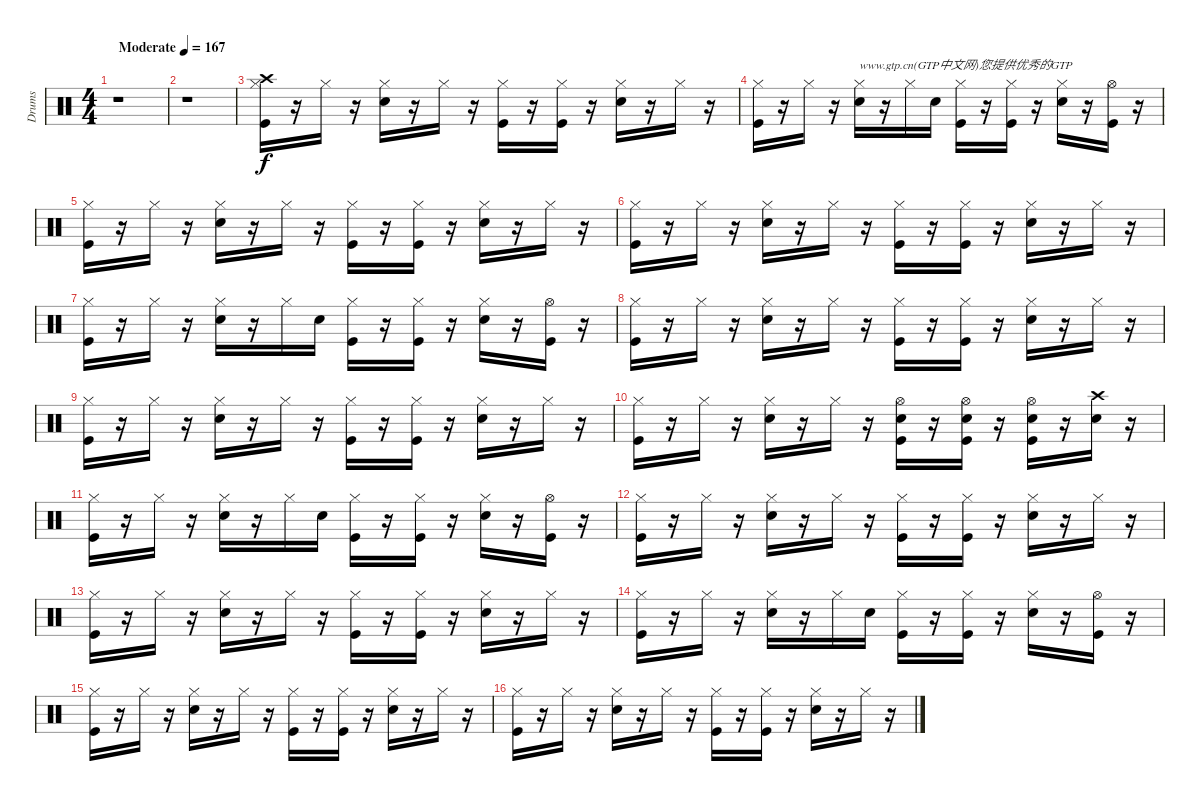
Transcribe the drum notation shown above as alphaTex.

\track ("Drums" "Drums") {instrument percussion}
\staff {score}
\articulation defaults
\ts (4 4)
\tempo (167 "Moderate")
\clef neutral
\ks c
r.1{dy f} |
r.1 |
("Kick (hit)" "Hi-Hat (closed)" "Crash high (hit)").16 r.16 "Hi-Hat (closed)".16 r.16 ("Snare (hit) 2" "Hi-Hat (closed)").16 r.16 "Hi-Hat (closed)".16 r.16 ("Kick (hit)" "Hi-Hat (closed)").16 r.16 ("Kick (hit)" "Hi-Hat (closed)").16 r.16 ("Snare (hit) 2" "Hi-Hat (closed)").16 r.16 "Hi-Hat (closed)".16 r.16 |
("Kick (hit)" "Hi-Hat (closed)").16 r.16 "Hi-Hat (closed)".16 r.16 ("Snare (hit) 2" "Hi-Hat (closed)").16{txt "www.gtp.cn(GTP中文网)您提供优秀的GTP"} r.16 "Hi-Hat (closed)".16 "Snare (hit) 2".16 ("Kick (hit)" "Hi-Hat (closed)").16 r.16 ("Kick (hit)" "Hi-Hat (closed)").16 r.16 ("Snare (hit) 2" "Hi-Hat (closed)").16 r.16 ("Kick (hit)" "Hi-Hat (open)").16 r.16 |
("Kick (hit)" "Hi-Hat (closed)").16 r.16 "Hi-Hat (closed)".16 r.16 ("Snare (hit) 2" "Hi-Hat (closed)").16 r.16 "Hi-Hat (closed)".16 r.16 ("Kick (hit)" "Hi-Hat (closed)").16 r.16 ("Kick (hit)" "Hi-Hat (closed)").16 r.16 ("Snare (hit) 2" "Hi-Hat (closed)").16 r.16 "Hi-Hat (closed)".16 r.16 |
("Kick (hit)" "Hi-Hat (closed)").16 r.16 "Hi-Hat (closed)".16 r.16 ("Snare (hit) 2" "Hi-Hat (closed)").16 r.16 "Hi-Hat (closed)".16 r.16 ("Kick (hit)" "Hi-Hat (closed)").16 r.16 ("Kick (hit)" "Hi-Hat (closed)").16 r.16 ("Snare (hit) 2" "Hi-Hat (closed)").16 r.16 "Hi-Hat (closed)".16 r.16 |
("Kick (hit)" "Hi-Hat (closed)").16 r.16 "Hi-Hat (closed)".16 r.16 ("Snare (hit) 2" "Hi-Hat (closed)").16 r.16 "Hi-Hat (closed)".16 "Snare (hit) 2".16 ("Kick (hit)" "Hi-Hat (closed)").16 r.16 ("Kick (hit)" "Hi-Hat (closed)").16 r.16 ("Snare (hit) 2" "Hi-Hat (closed)").16 r.16 ("Kick (hit)" "Hi-Hat (open)").16 r.16 |
("Kick (hit)" "Hi-Hat (closed)").16 r.16 "Hi-Hat (closed)".16 r.16 ("Snare (hit) 2" "Hi-Hat (closed)").16 r.16 "Hi-Hat (closed)".16 r.16 ("Kick (hit)" "Hi-Hat (closed)").16 r.16 ("Kick (hit)" "Hi-Hat (closed)").16 r.16 ("Snare (hit) 2" "Hi-Hat (closed)").16 r.16 "Hi-Hat (closed)".16 r.16 |
("Kick (hit)" "Hi-Hat (closed)").16 r.16 "Hi-Hat (closed)".16 r.16 ("Snare (hit) 2" "Hi-Hat (closed)").16 r.16 "Hi-Hat (closed)".16 r.16 ("Kick (hit)" "Hi-Hat (closed)").16 r.16 ("Kick (hit)" "Hi-Hat (closed)").16 r.16 ("Snare (hit) 2" "Hi-Hat (closed)").16 r.16 "Hi-Hat (closed)".16 r.16 |
("Kick (hit)" "Hi-Hat (closed)").16 r.16 "Hi-Hat (closed)".16 r.16 ("Snare (hit) 2" "Hi-Hat (closed)").16 r.16 "Hi-Hat (closed)".16 r.16 ("Kick (hit)" "Snare (hit) 2" "Hi-Hat (open)").16 r.16 ("Kick (hit)" "Snare (hit) 2" "Hi-Hat (open)").16 r.16 ("Kick (hit)" "Snare (hit) 2" "Hi-Hat (open)").16 r.16 ("Snare (hit) 2" "Crash high (hit)").16 r.16 |
("Kick (hit)" "Hi-Hat (closed)").16 r.16 "Hi-Hat (closed)".16 r.16 ("Snare (hit) 2" "Hi-Hat (closed)").16 r.16 "Hi-Hat (closed)".16 "Snare (hit) 2".16 ("Kick (hit)" "Hi-Hat (closed)").16 r.16 ("Kick (hit)" "Hi-Hat (closed)").16 r.16 ("Snare (hit) 2" "Hi-Hat (closed)").16 r.16 ("Kick (hit)" "Hi-Hat (open)").16 r.16 |
("Kick (hit)" "Hi-Hat (closed)").16 r.16 "Hi-Hat (closed)".16 r.16 ("Snare (hit) 2" "Hi-Hat (closed)").16 r.16 "Hi-Hat (closed)".16 r.16 ("Kick (hit)" "Hi-Hat (closed)").16 r.16 ("Kick (hit)" "Hi-Hat (closed)").16 r.16 ("Snare (hit) 2" "Hi-Hat (closed)").16 r.16 "Hi-Hat (closed)".16 r.16 |
("Kick (hit)" "Hi-Hat (closed)").16 r.16 "Hi-Hat (closed)".16 r.16 ("Snare (hit) 2" "Hi-Hat (closed)").16 r.16 "Hi-Hat (closed)".16 r.16 ("Kick (hit)" "Hi-Hat (closed)").16 r.16 ("Kick (hit)" "Hi-Hat (closed)").16 r.16 ("Snare (hit) 2" "Hi-Hat (closed)").16 r.16 "Hi-Hat (closed)".16 r.16 |
("Kick (hit)" "Hi-Hat (closed)").16 r.16 "Hi-Hat (closed)".16 r.16 ("Snare (hit) 2" "Hi-Hat (closed)").16 r.16 "Hi-Hat (closed)".16 "Snare (hit) 2".16 ("Kick (hit)" "Hi-Hat (closed)").16 r.16 ("Kick (hit)" "Hi-Hat (closed)").16 r.16 ("Snare (hit) 2" "Hi-Hat (closed)").16 r.16 ("Kick (hit)" "Hi-Hat (open)").16 r.16 |
("Kick (hit)" "Hi-Hat (closed)").16 r.16 "Hi-Hat (closed)".16 r.16 ("Snare (hit) 2" "Hi-Hat (closed)").16 r.16 "Hi-Hat (closed)".16 r.16 ("Kick (hit)" "Hi-Hat (closed)").16 r.16 ("Kick (hit)" "Hi-Hat (closed)").16 r.16 ("Snare (hit) 2" "Hi-Hat (closed)").16 r.16 "Hi-Hat (closed)".16 r.16 |
("Kick (hit)" "Hi-Hat (closed)").16 r.16 "Hi-Hat (closed)".16 r.16 ("Snare (hit) 2" "Hi-Hat (closed)").16 r.16 "Hi-Hat (closed)".16 r.16 ("Kick (hit)" "Hi-Hat (closed)").16 r.16 ("Kick (hit)" "Hi-Hat (closed)").16 r.16 ("Snare (hit) 2" "Hi-Hat (closed)").16 r.16 "Hi-Hat (closed)".16 r.16
